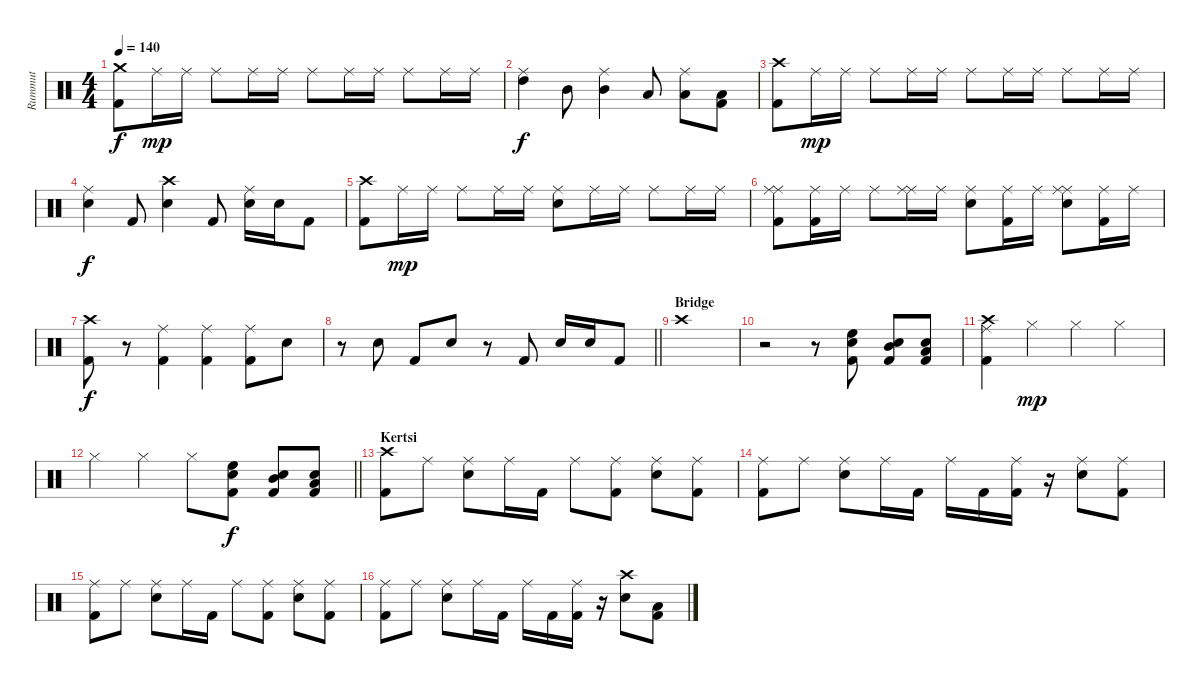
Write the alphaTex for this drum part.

\track ("Rummut" "Rummut") {instrument percussion}
\staff {score}
\articulation defaults
\ts (4 4)
\tempo 140
\clef neutral
\ks c
("Crash medium (hit)" "Kick (hit) 2").8{dy f} "Ride (middle)".16{dy mp} "Ride (middle)".16 "Ride (middle)".8 "Ride (middle)".16 "Ride (middle)".16 "Ride (middle)".8 "Ride (middle)".16 "Ride (middle)".16 "Ride (middle)".8 "Ride (middle)".16 "Ride (middle)".16 |
("Ride (middle)" "High Tom (hit)").4{dy f} "Mid Tom (hit)".8 ("Ride (middle)" "Mid Tom (hit)").4 "Low Floor Tom (hit)".8 ("Ride (middle)" "Low Floor Tom (hit)").8 ("Low Floor Tom (hit)" "Kick (hit) 2").8 |
("Crash high (hit)" "Kick (hit) 2").8 "Ride (middle)".16{dy mp} "Ride (middle)".16 "Ride (middle)".8 "Ride (middle)".16 "Ride (middle)".16 "Ride (middle)".8 "Ride (middle)".16 "Ride (middle)".16 "Ride (middle)".8 "Ride (middle)".16 "Ride (middle)".16 |
("Ride (middle)" "Snare (hit) 2").4{dy f} "Kick (hit) 2".8 ("Crash high (hit)" "Snare (hit) 2").4 "Kick (hit) 2".8 ("Ride (middle)" "Snare (hit) 2").16 "Snare (hit) 2".16 "Kick (hit) 2".8 |
("Crash high (hit)" "Kick (hit) 2").8 "Ride (middle)".16{dy mp} "Ride (middle)".16 "Ride (middle)".8 "Ride (middle)".16 "Ride (middle)".16 ("Ride (middle)" "Snare (hit) 2").8 "Ride (middle)".16 "Ride (middle)".16 "Ride (middle)".8 "Ride (middle)".16 "Ride (middle)".16 |
("Ride (middle)" "Ride (middle)" "Kick (hit) 2").8 ("Ride (middle)" "Kick (hit) 2").16 "Ride (middle)".16 "Ride (middle)".8 ("Ride (middle)" "Ride (middle)").16 "Ride (middle)".16 ("Ride (middle)" "Snare (hit) 2").8 ("Ride (middle)" "Kick (hit) 2").16 "Ride (middle)".16 ("Ride (middle)" "Ride (middle)" "Snare (hit) 2").8 ("Ride (middle)" "Kick (hit) 2").16 "Ride (middle)".16 |
("Crash high (hit)" "Kick (hit) 2").8{dy f} r.8 ("Ride (middle)" "Kick (hit) 2").4 ("Ride (middle)" "Kick (hit) 2").4 ("Ride (middle)" "Kick (hit) 2").8 "Snare (hit) 2".8 |
\barLineRight lightlight
r.8 "Snare (hit) 2".8 "Kick (hit) 2".8 "Snare (hit) 2".8 r.8 "Kick (hit) 2".8 "Snare (hit) 2".16 "Snare (hit) 2".16 "Kick (hit) 2".8 |
\section ("" "Bridge")
"Crash high (hit)".1 |
r.2 r.8 ("High Floor Tom (hit)" "Snare (hit) 2" "Kick (hit) 2").8 ("Mid Tom (hit)" "Snare (hit) 2" "Kick (hit) 2").8 ("Low Floor Tom (hit)" "Snare (hit) 2" "Kick (hit) 2").8 |
("Crash high (hit)" "Ride (middle)" "Kick (hit) 2").4 "Hi-Hat (closed)".4{dy mp} "Hi-Hat (closed)".4 "Hi-Hat (closed)".4 |
\barLineRight lightlight "Hi-Hat (closed)".4 "Hi-Hat (closed)".4 "Hi-Hat (closed)".8
("High Floor Tom (hit)" "Snare (hit) 2" "Kick (hit) 2").8{dy f} ("Mid Tom (hit)" "Snare (hit) 2" "Kick (hit) 2").8 ("Low Floor Tom (hit)" "Snare (hit) 2" "Kick (hit) 2").8 |
\section ("" "Kertsi")
("Crash high (hit)" "Kick (hit) 2").8 "Ride (middle)".8 ("Ride (middle)" "Snare (hit) 2").8 "Ride (middle)".16 "Kick (hit) 2".16 "Ride (middle)".8 ("Ride (middle)" "Kick (hit) 2").8 ("Ride (middle)" "Snare (hit) 2").8 ("Ride (middle)" "Kick (hit) 2").8 |
("Ride (middle)" "Kick (hit) 2").8 "Ride (middle)".8 ("Ride (middle)" "Snare (hit) 2").8 "Ride (middle)".16 "Kick (hit) 2".16 "Ride (middle)".16 "Kick (hit) 2".16 ("Ride (middle)" "Kick (hit) 2").16 r.16 ("Ride (middle)" "Snare (hit) 2").8 ("Ride (middle)" "Kick (hit) 2").8 |
("Ride (middle)" "Kick (hit) 2").8 "Ride (middle)".8 ("Ride (middle)" "Snare (hit) 2").8 "Ride (middle)".16 "Kick (hit) 2".16 "Ride (middle)".8 ("Ride (middle)" "Kick (hit) 2").8 ("Ride (middle)" "Snare (hit) 2").8 ("Ride (middle)" "Kick (hit) 2").8 |
("Ride (middle)" "Kick (hit) 2").8 "Ride (middle)".8 ("Ride (middle)" "Snare (hit) 2").8 "Ride (middle)".16 "Kick (hit) 2".16 "Ride (middle)".16 "Kick (hit) 2".16 ("Ride (middle)" "Kick (hit) 2").16 r.16 ("Crash high (hit)" "Snare (hit) 2").8 ("Low Floor Tom (hit)" "Kick (hit) 2").8
